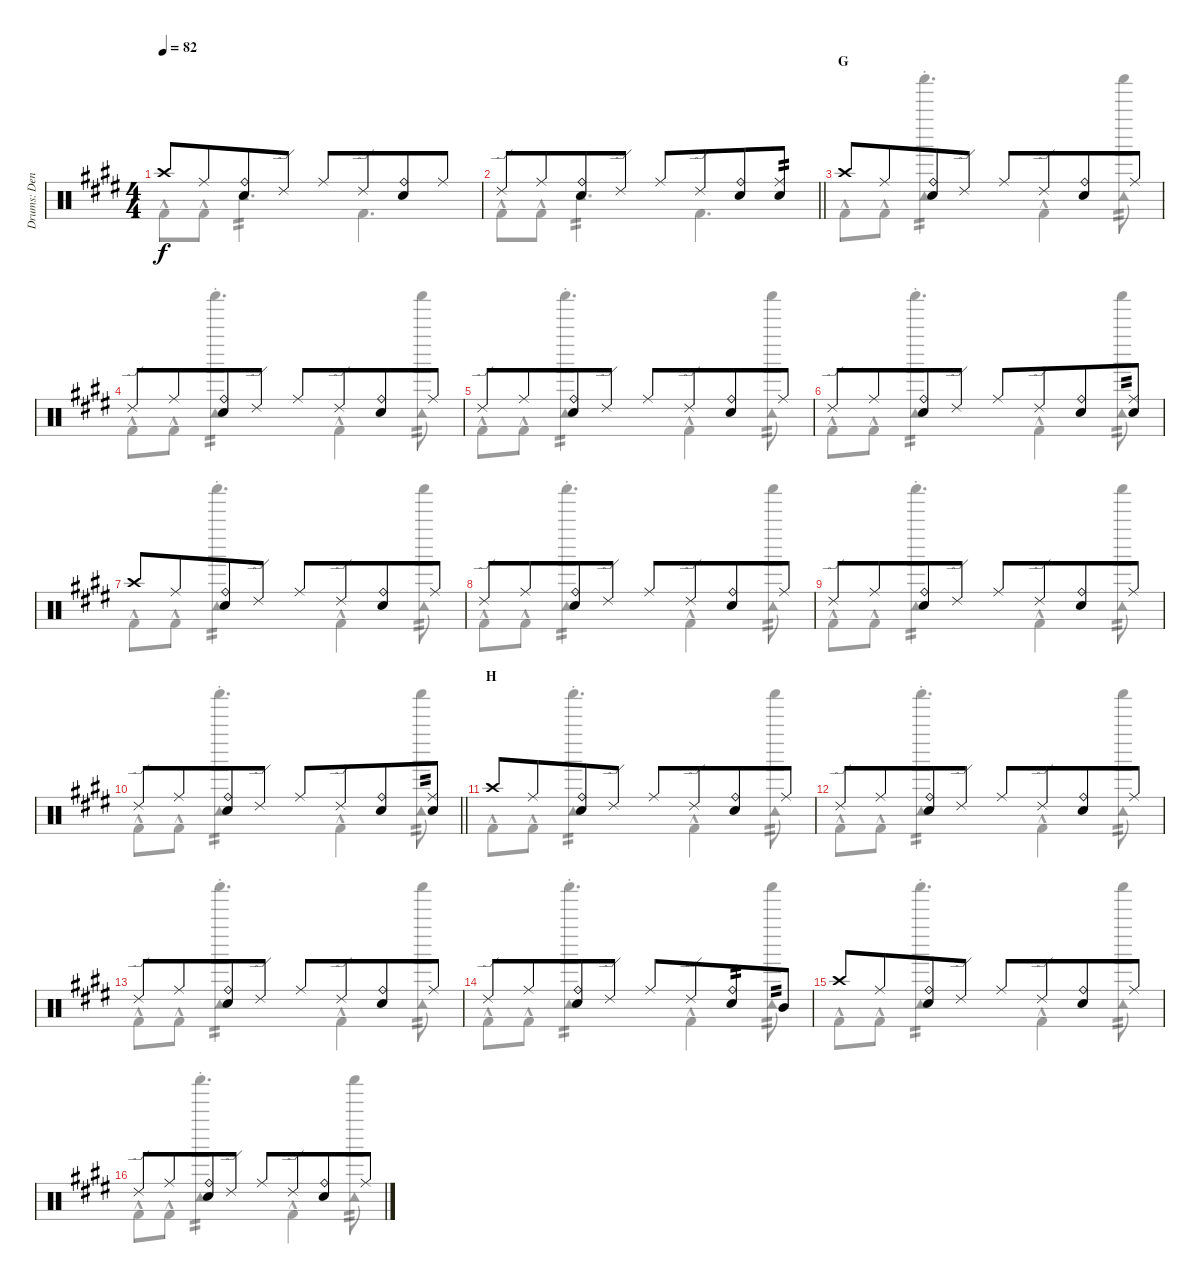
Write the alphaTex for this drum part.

\track ("Drums: Denny" "Drums: Den") {instrument percussion}
\staff {score}
\articulation defaults
\voice
\ts (4 4)
\tempo 82
\clef neutral
\ks e "Crash high (hit)".8{dy f} "Ride (middle)".8{beam merge}
("Ride (bell)" "Snare (hit) 2").8 "Ride (edge) 2".8 "Ride (middle)".8 "Ride (edge) 2".8{beam merge} ("Ride (bell)" "Snare (hit) 2").8 "Ride (middle)".8 |
\barLineRight lightlight "Ride (edge) 2".8 "Ride (middle)".8{beam merge}
("Ride (bell)" "Snare (hit) 2").8 "Ride (edge) 2".8 "Ride (middle)".8 "Ride (edge) 2".8{beam merge} ("Ride (bell)" "Snare (hit) 2").8 ("Ride (middle)" "Electric Snare (hit)").8{tp 2} |
\section ("" "G")
"Crash high (hit)".8 "Ride (middle)".8{beam merge} ("Ride (bell)" "Snare (hit) 2").8 "Ride (edge) 2".8 "Ride (middle)".8 "Ride (edge) 2".8{beam merge} ("Ride (bell)" "Snare (hit) 2").8 "Ride (middle)".8 |
"Ride (edge) 2".8 "Ride (middle)".8{beam merge} ("Ride (bell)" "Snare (hit) 2").8 "Ride (edge) 2".8 "Ride (middle)".8 "Ride (edge) 2".8{beam merge} ("Ride (bell)" "Snare (hit) 2").8 "Ride (middle)".8 |
"Ride (edge) 2".8 "Ride (middle)".8{beam merge} ("Ride (bell)" "Snare (hit) 2").8 "Ride (edge) 2".8 "Ride (middle)".8 "Ride (edge) 2".8{beam merge} ("Ride (bell)" "Snare (hit) 2").8 "Ride (middle)".8 |
"Ride (edge) 2".8 "Ride (middle)".8{beam merge} ("Ride (bell)" "Snare (hit) 2").8 "Ride (edge) 2".8 "Ride (middle)".8 "Ride (edge) 2".8{beam merge} ("Ride (bell)" "Snare (hit) 2").8 ("Ride (middle)" "Snare (hit) 2").8{tp 2} |
"Crash high (hit)".8 "Ride (middle)".8{beam merge} ("Ride (bell)" "Snare (hit) 2").8 "Ride (edge) 2".8 "Ride (middle)".8 "Ride (edge) 2".8{beam merge} ("Ride (bell)" "Snare (hit) 2").8 "Ride (middle)".8 |
"Ride (edge) 2".8 "Ride (middle)".8{beam merge} ("Ride (bell)" "Snare (hit) 2").8 "Ride (edge) 2".8 "Ride (middle)".8 "Ride (edge) 2".8{beam merge} ("Ride (bell)" "Snare (hit) 2").8 "Ride (middle)".8 |
"Ride (edge) 2".8 "Ride (middle)".8{beam merge} ("Ride (bell)" "Snare (hit) 2").8 "Ride (edge) 2".8 "Ride (middle)".8 "Ride (edge) 2".8{beam merge} ("Ride (bell)" "Snare (hit) 2").8 "Ride (middle)".8 |
\barLineRight lightlight "Ride (edge) 2".8 "Ride (middle)".8{beam merge}
("Ride (bell)" "Snare (hit) 2").8 "Ride (edge) 2".8 "Ride (middle)".8 "Ride (edge) 2".8{beam merge} ("Ride (bell)" "Snare (hit) 2").8 ("Ride (middle)" "Snare (hit) 2").8{tp 2} |
\section ("" "H")
"Crash high (hit)".8 "Ride (middle)".8{beam merge} ("Ride (bell)" "Snare (hit) 2").8 "Ride (edge) 2".8 "Ride (middle)".8 "Ride (edge) 2".8{beam merge} ("Ride (bell)" "Snare (hit) 2").8 "Ride (middle)".8 |
"Ride (edge) 2".8 "Ride (middle)".8{beam merge} ("Ride (bell)" "Snare (hit) 2").8 "Ride (edge) 2".8 "Ride (middle)".8 "Ride (edge) 2".8{beam merge} ("Ride (bell)" "Snare (hit) 2").8 "Ride (middle)".8 |
"Ride (edge) 2".8 "Ride (middle)".8{beam merge} ("Ride (bell)" "Snare (hit) 2").8 "Ride (edge) 2".8 "Ride (middle)".8 "Ride (edge) 2".8{beam merge} ("Ride (bell)" "Snare (hit) 2").8 "Ride (middle)".8 |
"Ride (edge) 2".8 "Ride (middle)".8{beam merge} ("Ride (bell)" "Snare (hit) 2").8 "Ride (edge) 2".8 "Ride (middle)".8 "Ride (edge) 2".8{beam merge} ("Ride (bell)" "Snare (hit) 2").8{tp 2} "Mid Tom (hit)".8{tp 2} |
"Crash high (hit)".8 "Ride (middle)".8{beam merge} ("Ride (bell)" "Snare (hit) 2").8 "Ride (edge) 2".8 "Ride (middle)".8 "Ride (edge) 2".8{beam merge} ("Ride (bell)" "Snare (hit) 2").8 "Ride (middle)".8 |
"Ride (edge) 2".8 "Ride (middle)".8{beam merge} ("Ride (bell)" "Snare (hit) 2").8 "Ride (edge) 2".8 "Ride (middle)".8 "Ride (edge) 2".8{beam merge} ("Ride (bell)" "Snare (hit) 2").8 "Ride (middle)".8
\voice
\clef neutral
\ottava regular
\simile none
\ks e "Kick (hit) 2"{hac}.8{dy f} "Kick (hit) 2"{hac}.8{beam merge} "Tambourine (hit)".4{d tp 2 beam merge} "Kick (hit) 2".4{d}
|
\barLineRight lightlight "Kick (hit) 2"{hac}.8 "Kick (hit) 2"{hac}.8{beam merge} "Tambourine (hit)".4{d tp 2 beam merge} "Kick (hit) 2".4{d}
|
"Kick (hit) 2"{hac}.8 "Kick (hit) 2"{hac}.8{beam merge} ("Shaker (hit)" "Tambourine (hit)"{st}).4{d tp 2} "Kick (hit) 2"{hac}.4 ("Shaker (hit)" "Tambourine (hit)").8{tp 2} |
"Kick (hit) 2"{hac}.8 "Kick (hit) 2"{hac}.8{beam merge} ("Shaker (hit)" "Tambourine (hit)"{st}).4{d tp 2} "Kick (hit) 2"{hac}.4 ("Shaker (hit)" "Tambourine (hit)").8{tp 2} |
"Kick (hit) 2"{hac}.8 "Kick (hit) 2"{hac}.8{beam merge} ("Shaker (hit)" "Tambourine (hit)"{st}).4{d tp 2} "Kick (hit) 2"{hac}.4 ("Shaker (hit)" "Tambourine (hit)").8{tp 2} |
"Kick (hit) 2"{hac}.8 "Kick (hit) 2"{hac}.8{beam merge} ("Shaker (hit)" "Tambourine (hit)"{st}).4{d tp 2} "Kick (hit) 2"{hac}.4 ("Shaker (hit)" "Tambourine (hit)").8{tp 2} |
"Kick (hit) 2"{hac}.8 "Kick (hit) 2"{hac}.8{beam merge} ("Shaker (hit)" "Tambourine (hit)"{st}).4{d tp 2} "Kick (hit) 2"{hac}.4 ("Shaker (hit)" "Tambourine (hit)").8{tp 2} |
"Kick (hit) 2"{hac}.8 "Kick (hit) 2"{hac}.8{beam merge} ("Shaker (hit)" "Tambourine (hit)"{st}).4{d tp 2} "Kick (hit) 2"{hac}.4 ("Shaker (hit)" "Tambourine (hit)").8{tp 2} |
"Kick (hit) 2"{hac}.8 "Kick (hit) 2"{hac}.8{beam merge} ("Shaker (hit)" "Tambourine (hit)"{st}).4{d tp 2} "Kick (hit) 2"{hac}.4 ("Shaker (hit)" "Tambourine (hit)").8{tp 2} |
\barLineRight lightlight "Kick (hit) 2"{hac}.8 "Kick (hit) 2"{hac}.8{beam merge}
("Shaker (hit)" "Tambourine (hit)"{st}).4{d tp 2} "Kick (hit) 2"{hac}.4 ("Shaker (hit)" "Tambourine (hit)").8{tp 2} |
"Kick (hit) 2"{hac}.8 "Kick (hit) 2"{hac}.8{beam merge} ("Shaker (hit)" "Tambourine (hit)"{st}).4{d tp 2} "Kick (hit) 2"{hac}.4 ("Shaker (hit)" "Tambourine (hit)").8{tp 2} |
"Kick (hit) 2"{hac}.8 "Kick (hit) 2"{hac}.8{beam merge} ("Shaker (hit)" "Tambourine (hit)"{st}).4{d tp 2} "Kick (hit) 2"{hac}.4 ("Shaker (hit)" "Tambourine (hit)").8{tp 2} |
"Kick (hit) 2"{hac}.8 "Kick (hit) 2"{hac}.8{beam merge} ("Shaker (hit)" "Tambourine (hit)"{st}).4{d tp 2} "Kick (hit) 2"{hac}.4 ("Shaker (hit)" "Tambourine (hit)").8{tp 2} |
"Kick (hit) 2"{hac}.8 "Kick (hit) 2"{hac}.8{beam merge} ("Shaker (hit)" "Tambourine (hit)"{st}).4{d tp 2} "Kick (hit) 2"{hac}.4 ("Shaker (hit)" "Tambourine (hit)").8{tp 2} |
"Kick (hit) 2"{hac}.8 "Kick (hit) 2"{hac}.8{beam merge} ("Shaker (hit)" "Tambourine (hit)"{st}).4{d tp 2} "Kick (hit) 2"{hac}.4 ("Shaker (hit)" "Tambourine (hit)").8{tp 2} |
"Kick (hit) 2"{hac}.8 "Kick (hit) 2"{hac}.8{beam merge} ("Shaker (hit)" "Tambourine (hit)"{st}).4{d tp 2} "Kick (hit) 2"{hac}.4 ("Shaker (hit)" "Tambourine (hit)").8{tp 2}
